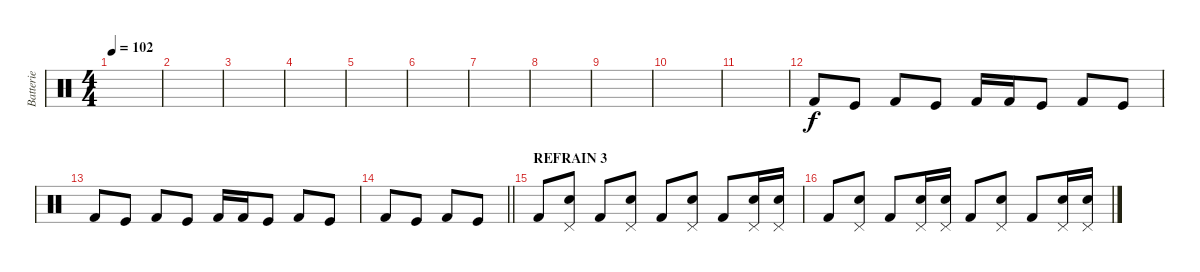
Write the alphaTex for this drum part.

\track ("Batterie" "Batterie") {instrument percussion}
\staff {score}
\articulation defaults
\ts (4 4)
\tempo 102
\clef neutral
\ks c
|
|
|
|
|
|
|
|
|
|
|
"Kick (hit) 2".8 "Kick (hit)".8 "Kick (hit) 2".8 "Kick (hit)".8 "Kick (hit) 2".16 "Kick (hit) 2".16 "Kick (hit)".8 "Kick (hit) 2".8 "Kick (hit)".8 |
"Kick (hit) 2".8 "Kick (hit)".8 "Kick (hit) 2".8 "Kick (hit)".8 "Kick (hit) 2".16 "Kick (hit) 2".16 "Kick (hit)".8 "Kick (hit) 2".8 "Kick (hit)".8 |
\barLineRight lightlight "Kick (hit) 2".8 "Kick (hit)".8 "Kick (hit) 2".8 "Kick (hit)".8
|
\section ("" "REFRAIN 3")
"Kick (hit) 2".8 ("Snare (hit) 2" "Pedal Hi-Hat (hit)").8 "Kick (hit) 2".8 ("Snare (hit) 2" "Pedal Hi-Hat (hit)").8 "Kick (hit) 2".8 ("Snare (hit) 2" "Pedal Hi-Hat (hit)").8 "Kick (hit) 2".8 ("Snare (hit) 2" "Pedal Hi-Hat (hit)").16 ("Snare (hit) 2" "Pedal Hi-Hat (hit)").16 |
"Kick (hit) 2".8 ("Snare (hit) 2" "Pedal Hi-Hat (hit)").8 "Kick (hit) 2".8 ("Snare (hit) 2" "Pedal Hi-Hat (hit)").16 ("Snare (hit) 2" "Pedal Hi-Hat (hit)").16 "Kick (hit) 2".8 ("Snare (hit) 2" "Pedal Hi-Hat (hit)").8 "Kick (hit) 2".8 ("Snare (hit) 2" "Pedal Hi-Hat (hit)").16 ("Snare (hit) 2" "Pedal Hi-Hat (hit)").16
